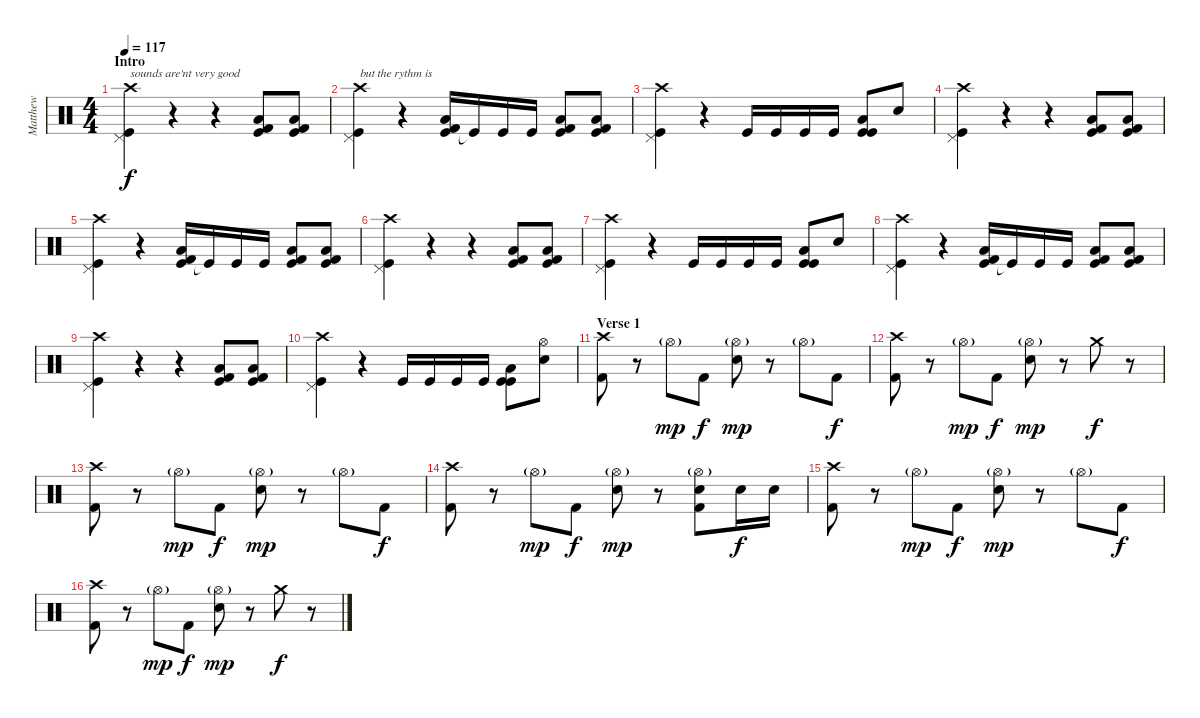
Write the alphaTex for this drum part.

\track ("Matthew" "Matthew") {instrument percussion}
\staff {score}
\articulation defaults
\ts (4 4)
\section ("" "Intro")
\tempo 117
\clef neutral
\ks c
("Crash high (hit)" "Pedal Hi-Hat (hit)" "Kick (hit)").4{txt "sounds are'nt very good" dy f} r.4 r.4 ("Kick (hit)" "Kick (hit) 2" "Low Floor Tom (hit)").8 ("Kick (hit)" "Kick (hit) 2" "Low Floor Tom (hit)").8 |
("Crash high (hit)" "Pedal Hi-Hat (hit)" "Kick (hit)").4{txt "but the rythm is"} r.4 ("Kick (hit) 2" "Kick (hit)" "Low Floor Tom (hit)").16 "Kick (hit)"{t}.16 "Kick (hit)".16 "Kick (hit)".16 ("Kick (hit)" "Kick (hit) 2" "Low Floor Tom (hit)").8 ("Kick (hit)" "Kick (hit) 2" "Low Floor Tom (hit)").8 |
("Crash high (hit)" "Pedal Hi-Hat (hit)" "Kick (hit)").4 r.4 "Kick (hit)".16 "Kick (hit)".16 "Kick (hit)".16 "Kick (hit)".16 ("Kick (hit)" "Kick (hit)" "Low Floor Tom (hit)").8 "Electric Snare (hit)".8 |
("Crash high (hit)" "Pedal Hi-Hat (hit)" "Kick (hit)").4 r.4 r.4 ("Kick (hit)" "Kick (hit) 2" "Low Floor Tom (hit)").8 ("Kick (hit)" "Kick (hit) 2" "Low Floor Tom (hit)").8 |
("Crash high (hit)" "Pedal Hi-Hat (hit)" "Kick (hit)").4 r.4 ("Kick (hit) 2" "Kick (hit)" "Low Floor Tom (hit)").16 "Kick (hit)"{t}.16 "Kick (hit)".16 "Kick (hit)".16 ("Kick (hit)" "Kick (hit) 2" "Low Floor Tom (hit)").8 ("Kick (hit)" "Kick (hit) 2" "Low Floor Tom (hit)").8 |
("Crash high (hit)" "Pedal Hi-Hat (hit)" "Kick (hit)").4 r.4 r.4 ("Kick (hit)" "Kick (hit) 2" "Low Floor Tom (hit)").8 ("Kick (hit)" "Kick (hit) 2" "Low Floor Tom (hit)").8 |
("Crash high (hit)" "Pedal Hi-Hat (hit)" "Kick (hit)").4 r.4 "Kick (hit)".16 "Kick (hit)".16 "Kick (hit)".16 "Kick (hit)".16 ("Kick (hit)" "Kick (hit)" "Low Floor Tom (hit)").8 "Electric Snare (hit)".8 |
("Crash high (hit)" "Pedal Hi-Hat (hit)" "Kick (hit)").4 r.4 ("Kick (hit) 2" "Kick (hit)" "Low Floor Tom (hit)").16 "Kick (hit)"{t}.16 "Kick (hit)".16 "Kick (hit)".16 ("Kick (hit)" "Kick (hit) 2" "Low Floor Tom (hit)").8 ("Kick (hit)" "Kick (hit) 2" "Low Floor Tom (hit)").8 |
("Crash high (hit)" "Pedal Hi-Hat (hit)" "Kick (hit)").4 r.4 r.4 ("Kick (hit)" "Kick (hit) 2" "Low Floor Tom (hit)").8 ("Kick (hit)" "Kick (hit) 2" "Low Floor Tom (hit)").8 |
("Crash high (hit)" "Pedal Hi-Hat (hit)" "Kick (hit)").4 r.4 "Kick (hit)".16 "Kick (hit)".16 "Kick (hit)".16 "Kick (hit)".16 ("Kick (hit)" "Kick (hit)" "Low Floor Tom (hit)").8 ("Hi-Hat (open)" "Electric Snare (hit)").8 |
\section ("" "Verse 1")
("Crash high (hit)" "Kick (hit) 2").8 r.8 "Hi-Hat (open)"{g}.8{dy mp} "Kick (hit) 2".8{dy f} ("Hi-Hat (open)"{g} "Electric Snare (hit)").8{dy mp} r.8 "Hi-Hat (open)"{g}.8 "Kick (hit) 2".8{dy f} |
("Crash high (hit)" "Kick (hit) 2").8 r.8 "Hi-Hat (open)"{g}.8{dy mp} "Kick (hit) 2".8{dy f} ("Hi-Hat (open)"{g} "Electric Snare (hit)").8{dy mp} r.8 "Crash medium (hit)".8{dy f} r.8 |
("Crash high (hit)" "Kick (hit) 2").8 r.8 "Hi-Hat (open)"{g}.8{dy mp} "Kick (hit) 2".8{dy f} ("Hi-Hat (open)"{g} "Electric Snare (hit)").8{dy mp} r.8 "Hi-Hat (open)"{g}.8 "Kick (hit) 2".8{dy f} |
("Crash high (hit)" "Kick (hit) 2").8 r.8 "Hi-Hat (open)"{g}.8{dy mp} "Kick (hit) 2".8{dy f} ("Hi-Hat (open)"{g} "Electric Snare (hit)").8{dy mp} r.8 ("Hi-Hat (open)"{g} "Electric Snare (hit)" "Kick (hit) 2").8 "Electric Snare (hit)".16{dy f} "Electric Snare (hit)".16 |
("Crash high (hit)" "Kick (hit) 2").8 r.8 "Hi-Hat (open)"{g}.8{dy mp} "Kick (hit) 2".8{dy f} ("Hi-Hat (open)"{g} "Electric Snare (hit)").8{dy mp} r.8 "Hi-Hat (open)"{g}.8 "Kick (hit) 2".8{dy f} |
("Crash high (hit)" "Kick (hit) 2").8 r.8 "Hi-Hat (open)"{g}.8{dy mp} "Kick (hit) 2".8{dy f} ("Hi-Hat (open)"{g} "Electric Snare (hit)").8{dy mp} r.8 "Crash medium (hit)".8{dy f} r.8
